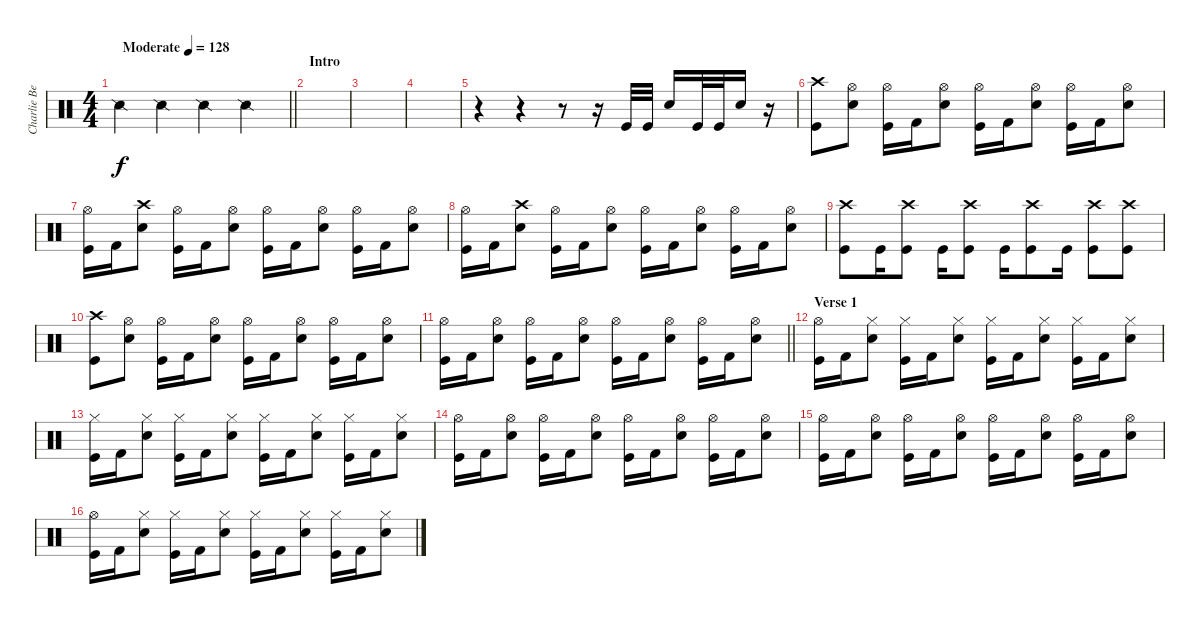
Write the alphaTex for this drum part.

\track ("Charlie Benante (Drums)" "Charlie Be") {instrument percussion}
\staff {score}
\articulation defaults
\ts (4 4)
\tempo (128 "Moderate")
\clef neutral
\barLineRight lightlight
\ks c "Snare (side stick) 2".4{dy f} "Snare (side stick) 2".4 "Snare (side stick) 2".4 "Snare (side stick) 2".4
|
\section ("" "Intro")
|
|
|
r.4 r.4 r.8 r.16 "Kick (hit)".32 "Kick (hit)".32 "Snare (hit) 2".16 "Kick (hit)".32 "Kick (hit)".32 "Snare (hit) 2".16 r.16 |
("Crash high (hit)" "Kick (hit)").8 ("Hi-Hat (open)" "Snare (hit) 2").8 ("Hi-Hat (open)" "Kick (hit)").16 "Kick (hit) 2".16 ("Hi-Hat (open)" "Snare (hit) 2").8 ("Hi-Hat (open)" "Kick (hit)").16 "Kick (hit) 2".16 ("Hi-Hat (open)" "Snare (hit) 2").8 ("Hi-Hat (open)" "Kick (hit)").16 "Kick (hit) 2".16 ("Hi-Hat (open)" "Snare (hit) 2").8 |
("Hi-Hat (open)" "Kick (hit)").16 "Kick (hit) 2".16 ("Crash high (hit)" "Snare (hit) 2").8 ("Hi-Hat (open)" "Kick (hit)").16 "Kick (hit) 2".16 ("Hi-Hat (open)" "Snare (hit) 2").8 ("Hi-Hat (open)" "Kick (hit)").16 "Kick (hit) 2".16 ("Hi-Hat (open)" "Snare (hit) 2").8 ("Hi-Hat (open)" "Kick (hit)").16 "Kick (hit) 2".16 ("Hi-Hat (open)" "Snare (hit) 2").8 |
("Hi-Hat (open)" "Kick (hit)").16 "Kick (hit) 2".16 ("Crash high (hit)" "Snare (hit) 2").8 ("Hi-Hat (open)" "Kick (hit)").16 "Kick (hit) 2".16 ("Hi-Hat (open)" "Snare (hit) 2").8 ("Hi-Hat (open)" "Kick (hit)").16 "Kick (hit) 2".16 ("Hi-Hat (open)" "Snare (hit) 2").8 ("Hi-Hat (open)" "Kick (hit)").16 "Kick (hit) 2".16 ("Hi-Hat (open)" "Snare (hit) 2").8 |
("Crash high (hit)" "Kick (hit)").8 "Kick (hit)".16 ("Crash high (hit)" "Kick (hit)").8 "Kick (hit)".16 ("Crash high (hit)" "Kick (hit)").8 "Kick (hit)".16 ("Crash high (hit)" "Kick (hit)").8 "Kick (hit)".16 ("Crash high (hit)" "Kick (hit)").8 ("Crash high (hit)" "Kick (hit)").8 |
("Crash high (hit)" "Kick (hit)").8 ("Hi-Hat (open)" "Snare (hit) 2").8 ("Hi-Hat (open)" "Kick (hit)").16 "Kick (hit) 2".16 ("Hi-Hat (open)" "Snare (hit) 2").8 ("Hi-Hat (open)" "Kick (hit)").16 "Kick (hit) 2".16 ("Hi-Hat (open)" "Snare (hit) 2").8 ("Hi-Hat (open)" "Kick (hit)").16 "Kick (hit) 2".16 ("Hi-Hat (open)" "Snare (hit) 2").8 |
\barLineRight lightlight
("Hi-Hat (open)" "Kick (hit)").16 "Kick (hit) 2".16 ("Hi-Hat (open)" "Snare (hit) 2").8 ("Hi-Hat (open)" "Kick (hit)").16 "Kick (hit) 2".16 ("Hi-Hat (open)" "Snare (hit) 2").8 ("Hi-Hat (open)" "Kick (hit)").16 "Kick (hit) 2".16 ("Hi-Hat (open)" "Snare (hit) 2").8 ("Hi-Hat (open)" "Kick (hit)").16 "Kick (hit) 2".16 ("Hi-Hat (open)" "Snare (hit) 2").8 |
\section ("" "Verse 1")
("Hi-Hat (open)" "Kick (hit)").16 "Kick (hit) 2".16 ("Hi-Hat (closed)" "Snare (hit) 2").8 ("Hi-Hat (closed)" "Kick (hit)").16 "Kick (hit) 2".16 ("Hi-Hat (closed)" "Snare (hit) 2").8 ("Hi-Hat (closed)" "Kick (hit)").16 "Kick (hit) 2".16 ("Hi-Hat (closed)" "Snare (hit) 2").8 ("Hi-Hat (closed)" "Kick (hit)").16 "Kick (hit) 2".16 ("Hi-Hat (closed)" "Snare (hit) 2").8 |
("Hi-Hat (closed)" "Kick (hit)").16 "Kick (hit) 2".16 ("Hi-Hat (closed)" "Snare (hit) 2").8 ("Hi-Hat (closed)" "Kick (hit)").16 "Kick (hit) 2".16 ("Hi-Hat (closed)" "Snare (hit) 2").8 ("Hi-Hat (closed)" "Kick (hit)").16 "Kick (hit) 2".16 ("Hi-Hat (closed)" "Snare (hit) 2").8 ("Hi-Hat (closed)" "Kick (hit)").16 "Kick (hit) 2".16 ("Hi-Hat (closed)" "Snare (hit) 2").8 |
("Hi-Hat (open)" "Kick (hit)").16 "Kick (hit) 2".16 ("Hi-Hat (open)" "Snare (hit) 2").8 ("Hi-Hat (open)" "Kick (hit)").16 "Kick (hit) 2".16 ("Hi-Hat (open)" "Snare (hit) 2").8 ("Hi-Hat (open)" "Kick (hit)").16 "Kick (hit) 2".16 ("Hi-Hat (open)" "Snare (hit) 2").8 ("Hi-Hat (open)" "Kick (hit)").16 "Kick (hit) 2".16 ("Hi-Hat (open)" "Snare (hit) 2").8 |
("Hi-Hat (open)" "Kick (hit)").16 "Kick (hit) 2".16 ("Hi-Hat (open)" "Snare (hit) 2").8 ("Hi-Hat (open)" "Kick (hit)").16 "Kick (hit) 2".16 ("Hi-Hat (open)" "Snare (hit) 2").8 ("Hi-Hat (open)" "Kick (hit)").16 "Kick (hit) 2".16 ("Hi-Hat (open)" "Snare (hit) 2").8 ("Hi-Hat (open)" "Kick (hit)").16 "Kick (hit) 2".16 ("Hi-Hat (open)" "Snare (hit) 2").8 |
("Hi-Hat (open)" "Kick (hit)").16 "Kick (hit) 2".16 ("Hi-Hat (closed)" "Snare (hit) 2").8 ("Hi-Hat (closed)" "Kick (hit)").16 "Kick (hit) 2".16 ("Hi-Hat (closed)" "Snare (hit) 2").8 ("Hi-Hat (closed)" "Kick (hit)").16 "Kick (hit) 2".16 ("Hi-Hat (closed)" "Snare (hit) 2").8 ("Hi-Hat (closed)" "Kick (hit)").16 "Kick (hit) 2".16 ("Hi-Hat (closed)" "Snare (hit) 2").8
